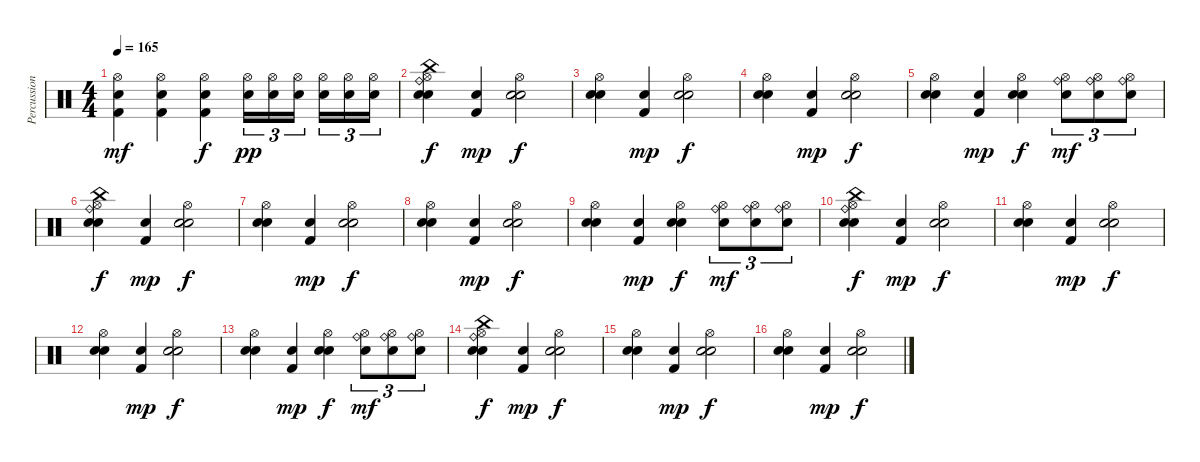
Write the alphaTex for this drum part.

\track ("Percussion" "Percussion") {instrument percussion}
\staff {score}
\articulation defaults
\ts (4 4)
\tempo 165
\clef neutral
\ks c
("Hi-Hat (open)" "Electric Snare (hit)" "Kick (hit) 2").4{dy mf} ("Hi-Hat (open)" "Electric Snare (hit)" "Kick (hit) 2").4 ("Hi-Hat (open)" "Electric Snare (hit)" "Kick (hit) 2").4{dy f} ("Hi-Hat (open)" "Electric Snare (hit)").16{tu (3 2) dy pp} ("Hi-Hat (open)" "Electric Snare (hit)").16{tu (3 2)} ("Hi-Hat (open)" "Electric Snare (hit)").16{tu (3 2) beam splitsecondary} ("Hi-Hat (open)" "Electric Snare (hit)").16{tu (3 2)} ("Hi-Hat (open)" "Electric Snare (hit)").16{tu (3 2)} ("Hi-Hat (open)" "Electric Snare (hit)").16{tu (3 2)} |
("China (hit)" "Ride (bell)" "Hi-Hat (open)" "Electric Snare (hit)" "Snare (hit) 2").4{dy f} ("Snare (hit) 2" "Kick (hit) 2").4{dy mp} ("Hi-Hat (open)" "Electric Snare (hit)" "Snare (hit) 2").2{dy f} |
("Hi-Hat (open)" "Electric Snare (hit)" "Snare (hit) 2").4 ("Snare (hit) 2" "Kick (hit) 2").4{dy mp} ("Hi-Hat (open)" "Electric Snare (hit)" "Snare (hit) 2").2{dy f} |
("Hi-Hat (open)" "Electric Snare (hit)" "Snare (hit) 2").4 ("Snare (hit) 2" "Kick (hit) 2").4{dy mp} ("Hi-Hat (open)" "Electric Snare (hit)" "Snare (hit) 2").2{dy f} |
("Hi-Hat (open)" "Electric Snare (hit)" "Snare (hit) 2").4 ("Snare (hit) 2" "Kick (hit) 2").4{dy mp} ("Hi-Hat (open)" "Electric Snare (hit)" "Snare (hit) 2").4{dy f} ("Ride (bell)" "Hi-Hat (open)" "Electric Snare (hit)").8{tu (3 2) dy mf} ("Ride (bell)" "Hi-Hat (open)" "Electric Snare (hit)").8{tu (3 2)} ("Ride (bell)" "Hi-Hat (open)" "Electric Snare (hit)").8{tu (3 2)} |
("China (hit)" "Ride (bell)" "Hi-Hat (open)" "Electric Snare (hit)" "Snare (hit) 2").4{dy f} ("Snare (hit) 2" "Kick (hit) 2").4{dy mp} ("Hi-Hat (open)" "Electric Snare (hit)" "Snare (hit) 2").2{dy f} |
("Hi-Hat (open)" "Electric Snare (hit)" "Snare (hit) 2").4 ("Snare (hit) 2" "Kick (hit) 2").4{dy mp} ("Hi-Hat (open)" "Electric Snare (hit)" "Snare (hit) 2").2{dy f} |
("Hi-Hat (open)" "Electric Snare (hit)" "Snare (hit) 2").4 ("Snare (hit) 2" "Kick (hit) 2").4{dy mp} ("Hi-Hat (open)" "Electric Snare (hit)" "Snare (hit) 2").2{dy f} |
("Hi-Hat (open)" "Electric Snare (hit)" "Snare (hit) 2").4 ("Snare (hit) 2" "Kick (hit) 2").4{dy mp} ("Hi-Hat (open)" "Electric Snare (hit)" "Snare (hit) 2").4{dy f} ("Ride (bell)" "Hi-Hat (open)" "Electric Snare (hit)").8{tu (3 2) dy mf} ("Ride (bell)" "Hi-Hat (open)" "Electric Snare (hit)").8{tu (3 2)} ("Ride (bell)" "Hi-Hat (open)" "Electric Snare (hit)").8{tu (3 2)} |
("China (hit)" "Ride (bell)" "Hi-Hat (open)" "Electric Snare (hit)" "Snare (hit) 2").4{dy f} ("Snare (hit) 2" "Kick (hit) 2").4{dy mp} ("Hi-Hat (open)" "Electric Snare (hit)" "Snare (hit) 2").2{dy f} |
("Hi-Hat (open)" "Electric Snare (hit)" "Snare (hit) 2").4 ("Snare (hit) 2" "Kick (hit) 2").4{dy mp} ("Hi-Hat (open)" "Electric Snare (hit)" "Snare (hit) 2").2{dy f} |
("Hi-Hat (open)" "Electric Snare (hit)" "Snare (hit) 2").4 ("Snare (hit) 2" "Kick (hit) 2").4{dy mp} ("Hi-Hat (open)" "Electric Snare (hit)" "Snare (hit) 2").2{dy f} |
("Hi-Hat (open)" "Electric Snare (hit)" "Snare (hit) 2").4 ("Snare (hit) 2" "Kick (hit) 2").4{dy mp} ("Hi-Hat (open)" "Electric Snare (hit)" "Snare (hit) 2").4{dy f} ("Ride (bell)" "Hi-Hat (open)" "Electric Snare (hit)").8{tu (3 2) dy mf} ("Ride (bell)" "Hi-Hat (open)" "Electric Snare (hit)").8{tu (3 2)} ("Ride (bell)" "Hi-Hat (open)" "Electric Snare (hit)").8{tu (3 2)} |
("China (hit)" "Ride (bell)" "Hi-Hat (open)" "Electric Snare (hit)" "Snare (hit) 2").4{dy f} ("Snare (hit) 2" "Kick (hit) 2").4{dy mp} ("Hi-Hat (open)" "Electric Snare (hit)" "Snare (hit) 2").2{dy f} |
("Hi-Hat (open)" "Electric Snare (hit)" "Snare (hit) 2").4 ("Snare (hit) 2" "Kick (hit) 2").4{dy mp} ("Hi-Hat (open)" "Electric Snare (hit)" "Snare (hit) 2").2{dy f} |
("Hi-Hat (open)" "Electric Snare (hit)" "Snare (hit) 2").4 ("Snare (hit) 2" "Kick (hit) 2").4{dy mp} ("Hi-Hat (open)" "Electric Snare (hit)" "Snare (hit) 2").2{dy f}
